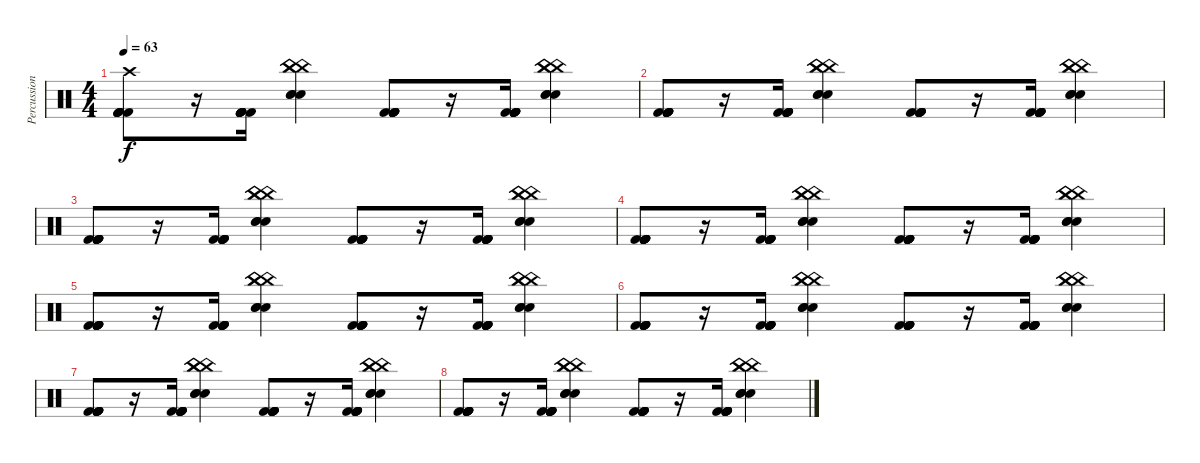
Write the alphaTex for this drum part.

\track ("Percussion" "Percussion") {instrument percussion}
\staff {score}
\articulation defaults
\ts (4 4)
\tempo 63
\clef neutral
\ks c
("Crash high (hit)" "Kick (hit) 2" "Kick (hit) 2" "Kick (hit) 2" "Kick (hit) 2" "Kick (hit) 2").8{dy f} r.16 ("Kick (hit) 2" "Kick (hit) 2" "Kick (hit) 2" "Kick (hit) 2" "Kick (hit) 2" "Kick (hit) 2").16 ("China (hit)" "Snare (hit) 2" "China (hit)" "Snare (hit) 2" "China (hit)" "Snare (hit) 2").4 ("Kick (hit) 2" "Kick (hit) 2" "Kick (hit) 2" "Kick (hit) 2" "Kick (hit) 2" "Kick (hit) 2").8 r.16 ("Kick (hit) 2" "Kick (hit) 2" "Kick (hit) 2" "Kick (hit) 2" "Kick (hit) 2" "Kick (hit) 2").16 ("China (hit)" "Snare (hit) 2" "China (hit)" "Snare (hit) 2" "China (hit)" "Snare (hit) 2").4 |
("Kick (hit) 2" "Kick (hit) 2" "Kick (hit) 2" "Kick (hit) 2" "Kick (hit) 2" "Kick (hit) 2").8 r.16 ("Kick (hit) 2" "Kick (hit) 2" "Kick (hit) 2" "Kick (hit) 2" "Kick (hit) 2" "Kick (hit) 2").16 ("China (hit)" "Snare (hit) 2" "China (hit)" "Snare (hit) 2" "China (hit)" "Snare (hit) 2").4 ("Kick (hit) 2" "Kick (hit) 2" "Kick (hit) 2" "Kick (hit) 2" "Kick (hit) 2" "Kick (hit) 2").8 r.16 ("Kick (hit) 2" "Kick (hit) 2" "Kick (hit) 2" "Kick (hit) 2" "Kick (hit) 2" "Kick (hit) 2").16 ("China (hit)" "Snare (hit) 2" "China (hit)" "Snare (hit) 2" "China (hit)" "Snare (hit) 2").4 |
("Kick (hit) 2" "Kick (hit) 2" "Kick (hit) 2" "Kick (hit) 2" "Kick (hit) 2" "Kick (hit) 2").8 r.16 ("Kick (hit) 2" "Kick (hit) 2" "Kick (hit) 2" "Kick (hit) 2" "Kick (hit) 2" "Kick (hit) 2").16 ("China (hit)" "Snare (hit) 2" "China (hit)" "Snare (hit) 2" "China (hit)" "Snare (hit) 2").4 ("Kick (hit) 2" "Kick (hit) 2" "Kick (hit) 2" "Kick (hit) 2" "Kick (hit) 2" "Kick (hit) 2").8 r.16 ("Kick (hit) 2" "Kick (hit) 2" "Kick (hit) 2" "Kick (hit) 2" "Kick (hit) 2" "Kick (hit) 2").16 ("China (hit)" "Snare (hit) 2" "China (hit)" "Snare (hit) 2" "China (hit)" "Snare (hit) 2").4 |
("Kick (hit) 2" "Kick (hit) 2" "Kick (hit) 2" "Kick (hit) 2" "Kick (hit) 2" "Kick (hit) 2").8 r.16 ("Kick (hit) 2" "Kick (hit) 2" "Kick (hit) 2" "Kick (hit) 2" "Kick (hit) 2" "Kick (hit) 2").16 ("China (hit)" "Snare (hit) 2" "China (hit)" "Snare (hit) 2" "China (hit)" "Snare (hit) 2").4 ("Kick (hit) 2" "Kick (hit) 2" "Kick (hit) 2" "Kick (hit) 2" "Kick (hit) 2" "Kick (hit) 2").8 r.16 ("Kick (hit) 2" "Kick (hit) 2" "Kick (hit) 2" "Kick (hit) 2" "Kick (hit) 2" "Kick (hit) 2").16 ("China (hit)" "Snare (hit) 2" "China (hit)" "Snare (hit) 2" "China (hit)" "Snare (hit) 2").4 |
("Kick (hit) 2" "Kick (hit) 2" "Kick (hit) 2" "Kick (hit) 2" "Kick (hit) 2" "Kick (hit) 2").8 r.16 ("Kick (hit) 2" "Kick (hit) 2" "Kick (hit) 2" "Kick (hit) 2" "Kick (hit) 2" "Kick (hit) 2").16 ("China (hit)" "Snare (hit) 2" "China (hit)" "Snare (hit) 2" "China (hit)" "Snare (hit) 2").4 ("Kick (hit) 2" "Kick (hit) 2" "Kick (hit) 2" "Kick (hit) 2" "Kick (hit) 2" "Kick (hit) 2").8 r.16 ("Kick (hit) 2" "Kick (hit) 2" "Kick (hit) 2" "Kick (hit) 2" "Kick (hit) 2" "Kick (hit) 2").16 ("China (hit)" "Snare (hit) 2" "China (hit)" "Snare (hit) 2" "China (hit)" "Snare (hit) 2").4 |
("Kick (hit) 2" "Kick (hit) 2" "Kick (hit) 2" "Kick (hit) 2" "Kick (hit) 2" "Kick (hit) 2").8 r.16 ("Kick (hit) 2" "Kick (hit) 2" "Kick (hit) 2" "Kick (hit) 2" "Kick (hit) 2" "Kick (hit) 2").16 ("China (hit)" "Snare (hit) 2" "China (hit)" "Snare (hit) 2" "China (hit)" "Snare (hit) 2").4 ("Kick (hit) 2" "Kick (hit) 2" "Kick (hit) 2" "Kick (hit) 2" "Kick (hit) 2" "Kick (hit) 2").8 r.16 ("Kick (hit) 2" "Kick (hit) 2" "Kick (hit) 2" "Kick (hit) 2" "Kick (hit) 2" "Kick (hit) 2").16 ("China (hit)" "Snare (hit) 2" "China (hit)" "Snare (hit) 2" "China (hit)" "Snare (hit) 2").4 |
("Kick (hit) 2" "Kick (hit) 2" "Kick (hit) 2" "Kick (hit) 2" "Kick (hit) 2" "Kick (hit) 2").8 r.16 ("Kick (hit) 2" "Kick (hit) 2" "Kick (hit) 2" "Kick (hit) 2" "Kick (hit) 2" "Kick (hit) 2").16 ("China (hit)" "Snare (hit) 2" "China (hit)" "Snare (hit) 2" "China (hit)" "Snare (hit) 2").4 ("Kick (hit) 2" "Kick (hit) 2" "Kick (hit) 2" "Kick (hit) 2" "Kick (hit) 2" "Kick (hit) 2").8 r.16 ("Kick (hit) 2" "Kick (hit) 2" "Kick (hit) 2" "Kick (hit) 2" "Kick (hit) 2" "Kick (hit) 2").16 ("China (hit)" "Snare (hit) 2" "China (hit)" "Snare (hit) 2" "China (hit)" "Snare (hit) 2").4 |
("Kick (hit) 2" "Kick (hit) 2" "Kick (hit) 2" "Kick (hit) 2" "Kick (hit) 2" "Kick (hit) 2").8 r.16 ("Kick (hit) 2" "Kick (hit) 2" "Kick (hit) 2" "Kick (hit) 2" "Kick (hit) 2" "Kick (hit) 2").16 ("China (hit)" "Snare (hit) 2" "China (hit)" "Snare (hit) 2" "China (hit)" "Snare (hit) 2").4 ("Kick (hit) 2" "Kick (hit) 2" "Kick (hit) 2" "Kick (hit) 2" "Kick (hit) 2" "Kick (hit) 2").8 r.16 ("Kick (hit) 2" "Kick (hit) 2" "Kick (hit) 2" "Kick (hit) 2" "Kick (hit) 2" "Kick (hit) 2").16 ("China (hit)" "Snare (hit) 2" "China (hit)" "Snare (hit) 2" "China (hit)" "Snare (hit) 2").4
